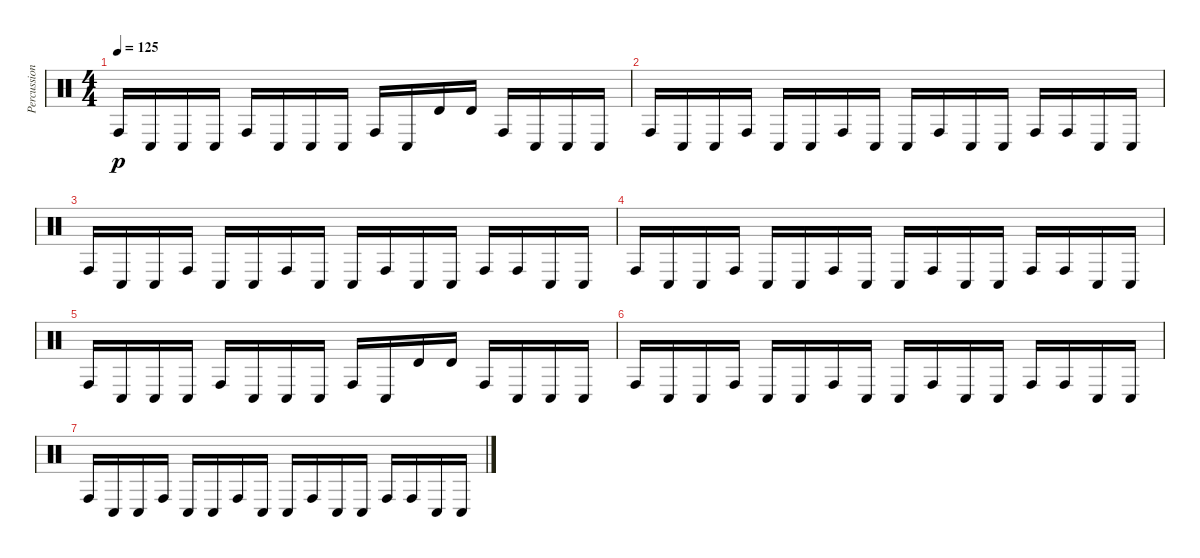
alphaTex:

\track ("Percussion" "Percussion") {instrument percussion}
\staff {score}
\articulation defaults
\ts (4 4)
\tempo 125
\clef neutral
\ks c "Conga high (hit)".16{dy p} "Conga low (hit)".16 "Conga low (hit)".16 "Conga low (hit)".16 "Conga high (hit)".16 "Conga low (hit)".16 "Conga low (hit)".16 "Conga low (hit)".16 "Conga high (hit)".16 "Conga low (hit)".16 "Timbale high (hit)".16 "Timbale high (hit)".16 "Conga high (hit)".16 "Conga low (hit)".16 "Conga low (hit)".16 "Conga low (hit)".16
|
"Conga high (hit)".16 "Conga low (hit)".16 "Conga low (hit)".16 "Conga high (hit)".16 "Conga low (hit)".16 "Conga low (hit)".16 "Conga high (hit)".16 "Conga low (hit)".16 "Conga low (hit)".16 "Conga high (hit)".16 "Conga low (hit)".16 "Conga low (hit)".16 "Conga high (hit)".16 "Conga high (hit)".16 "Conga low (hit)".16 "Conga low (hit)".16 |
"Conga high (hit)".16 "Conga low (hit)".16 "Conga low (hit)".16 "Conga high (hit)".16 "Conga low (hit)".16 "Conga low (hit)".16 "Conga high (hit)".16 "Conga low (hit)".16 "Conga low (hit)".16 "Conga high (hit)".16 "Conga low (hit)".16 "Conga low (hit)".16 "Conga high (hit)".16 "Conga high (hit)".16 "Conga low (hit)".16 "Conga low (hit)".16 |
"Conga high (hit)".16 "Conga low (hit)".16 "Conga low (hit)".16 "Conga high (hit)".16 "Conga low (hit)".16 "Conga low (hit)".16 "Conga high (hit)".16 "Conga low (hit)".16 "Conga low (hit)".16 "Conga high (hit)".16 "Conga low (hit)".16 "Conga low (hit)".16 "Conga high (hit)".16 "Conga high (hit)".16 "Conga low (hit)".16 "Conga low (hit)".16 |
"Conga high (hit)".16 "Conga low (hit)".16 "Conga low (hit)".16 "Conga low (hit)".16 "Conga high (hit)".16 "Conga low (hit)".16 "Conga low (hit)".16 "Conga low (hit)".16 "Conga high (hit)".16 "Conga low (hit)".16 "Timbale high (hit)".16 "Timbale high (hit)".16 "Conga high (hit)".16 "Conga low (hit)".16 "Conga low (hit)".16 "Conga low (hit)".16 |
"Conga high (hit)".16 "Conga low (hit)".16 "Conga low (hit)".16 "Conga high (hit)".16 "Conga low (hit)".16 "Conga low (hit)".16 "Conga high (hit)".16 "Conga low (hit)".16 "Conga low (hit)".16 "Conga high (hit)".16 "Conga low (hit)".16 "Conga low (hit)".16 "Conga high (hit)".16 "Conga high (hit)".16 "Conga low (hit)".16 "Conga low (hit)".16 |
"Conga high (hit)".16 "Conga low (hit)".16 "Conga low (hit)".16 "Conga high (hit)".16 "Conga low (hit)".16 "Conga low (hit)".16 "Conga high (hit)".16 "Conga low (hit)".16 "Conga low (hit)".16 "Conga high (hit)".16 "Conga low (hit)".16 "Conga low (hit)".16 "Conga high (hit)".16 "Conga high (hit)".16 "Conga low (hit)".16 "Conga low (hit)".16
